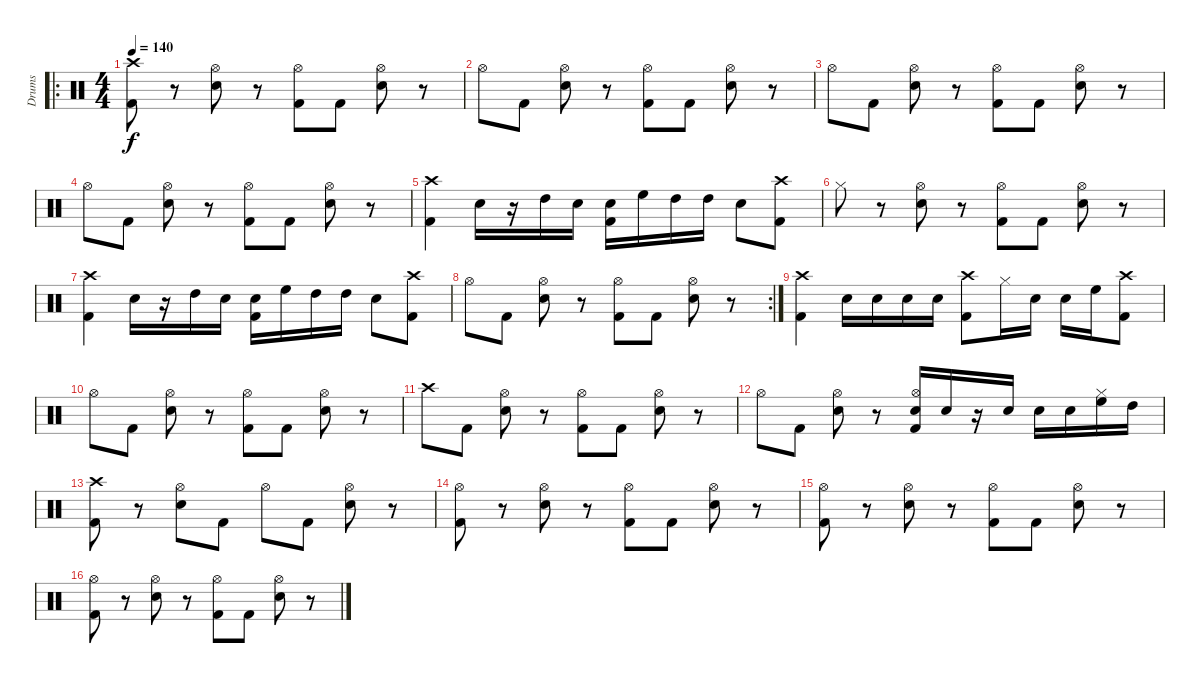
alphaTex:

\track ("Drums" "Drums") {instrument percussion}
\staff {score}
\articulation defaults
\ro
\ts (4 4)
\tempo 140
\clef neutral
\ks c
("Crash high (hit)" "Kick (hit) 2").8{dy f} r.8 ("Hi-Hat (open)" "Electric Snare (hit)").8 r.8 ("Hi-Hat (open)" "Kick (hit) 2").8 "Kick (hit) 2".8 ("Hi-Hat (open)" "Electric Snare (hit)").8 r.8 |
"Hi-Hat (open)".8 "Kick (hit) 2".8 ("Hi-Hat (open)" "Electric Snare (hit)").8 r.8 ("Hi-Hat (open)" "Kick (hit) 2").8 "Kick (hit) 2".8 ("Hi-Hat (open)" "Electric Snare (hit)").8 r.8 |
"Hi-Hat (open)".8 "Kick (hit) 2".8 ("Hi-Hat (open)" "Electric Snare (hit)").8 r.8 ("Hi-Hat (open)" "Kick (hit) 2").8 "Kick (hit) 2".8 ("Hi-Hat (open)" "Electric Snare (hit)").8 r.8 |
"Hi-Hat (open)".8 "Kick (hit) 2".8 ("Hi-Hat (open)" "Electric Snare (hit)").8 r.8 ("Hi-Hat (open)" "Kick (hit) 2").8 "Kick (hit) 2".8 ("Hi-Hat (open)" "Electric Snare (hit)").8 r.8 |
("Crash high (hit)" "Kick (hit) 2").4 "Electric Snare (hit)".16 r.16 "High Tom (hit)".16 "Electric Snare (hit)".16 ("Electric Snare (hit)" "Kick (hit) 2").16 "High Floor Tom (hit)".16 "High Tom (hit)".16 "High Tom (hit)".16 "Electric Snare (hit)".8 ("Crash high (hit)" "Kick (hit) 2").8 |
"Hi-Hat (closed)".8 r.8 ("Hi-Hat (open)" "Electric Snare (hit)").8 r.8 ("Hi-Hat (open)" "Kick (hit) 2").8 "Kick (hit) 2".8 ("Hi-Hat (open)" "Electric Snare (hit)").8 r.8 |
("Crash high (hit)" "Kick (hit) 2").4 "Electric Snare (hit)".16 r.16 "High Tom (hit)".16 "Electric Snare (hit)".16 ("Electric Snare (hit)" "Kick (hit) 2").16 "High Floor Tom (hit)".16 "High Tom (hit)".16 "High Tom (hit)".16 "Electric Snare (hit)".8 ("Crash high (hit)" "Kick (hit) 2").8 |
\rc 2 "Hi-Hat (open)".8 "Kick (hit) 2".8
("Hi-Hat (open)" "Electric Snare (hit)").8 r.8 ("Hi-Hat (open)" "Kick (hit) 2").8 "Kick (hit) 2".8 ("Hi-Hat (open)" "Electric Snare (hit)").8 r.8 |
("Crash high (hit)" "Kick (hit) 2").4 "Electric Snare (hit)".16 "Electric Snare (hit)".16 "Electric Snare (hit)".16 "Electric Snare (hit)".16 ("Crash high (hit)" "Kick (hit) 2").8 "Hi-Hat (closed)".16 "Electric Snare (hit)".16 "Electric Snare (hit)".16 "High Floor Tom (hit)".16 ("Crash high (hit)" "Kick (hit) 2").8 |
"Hi-Hat (open)".8 "Kick (hit) 2".8 ("Hi-Hat (open)" "Electric Snare (hit)").8 r.8 ("Hi-Hat (open)" "Kick (hit) 2").8 "Kick (hit) 2".8 ("Hi-Hat (open)" "Electric Snare (hit)").8 r.8 |
"Crash high (hit)".8 "Kick (hit) 2".8 ("Hi-Hat (open)" "Electric Snare (hit)").8 r.8 ("Hi-Hat (open)" "Kick (hit) 2").8 "Kick (hit) 2".8 ("Hi-Hat (open)" "Electric Snare (hit)").8 r.8 |
"Hi-Hat (open)".8 "Kick (hit) 2".8 ("Hi-Hat (open)" "Electric Snare (hit)").8 r.8 ("Hi-Hat (open)" "Electric Snare (hit)" "Kick (hit) 2").16 "Electric Snare (hit)".16 r.16 "Electric Snare (hit)".16 "Electric Snare (hit)".16 "Electric Snare (hit)".16 ("Hi-Hat (closed)" "High Floor Tom (hit)").16 "High Tom (hit)".16 |
("Crash high (hit)" "Kick (hit) 2").8 r.8 ("Hi-Hat (open)" "Electric Snare (hit)").8 "Kick (hit) 2".8 "Hi-Hat (open)".8 "Kick (hit) 2".8 ("Hi-Hat (open)" "Electric Snare (hit)").8 r.8 |
("Hi-Hat (open)" "Kick (hit) 2").8 r.8 ("Hi-Hat (open)" "Electric Snare (hit)").8 r.8 ("Hi-Hat (open)" "Kick (hit) 2").8 "Kick (hit) 2".8 ("Hi-Hat (open)" "Electric Snare (hit)").8 r.8 |
("Hi-Hat (open)" "Kick (hit) 2").8 r.8 ("Hi-Hat (open)" "Electric Snare (hit)").8 r.8 ("Hi-Hat (open)" "Kick (hit) 2").8 "Kick (hit) 2".8 ("Hi-Hat (open)" "Electric Snare (hit)").8 r.8 |
("Hi-Hat (open)" "Kick (hit) 2").8 r.8 ("Hi-Hat (open)" "Electric Snare (hit)").8 r.8 ("Hi-Hat (open)" "Kick (hit) 2").8 "Kick (hit) 2".8 ("Hi-Hat (open)" "Electric Snare (hit)").8 r.8
